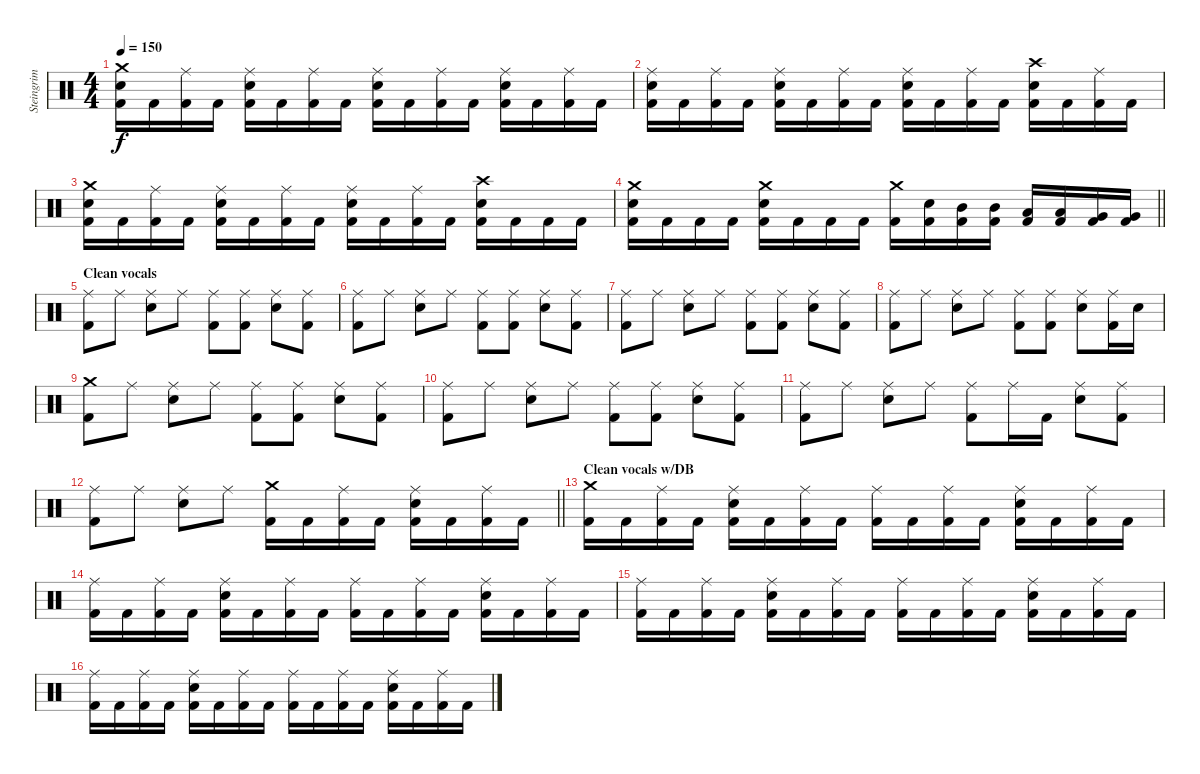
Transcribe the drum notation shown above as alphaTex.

\track ("Steingrim" "Steingrim") {instrument percussion}
\staff {score}
\articulation defaults
\ts (4 4)
\tempo 150
\clef neutral
\ks c
("Crash medium (hit)" "Snare (hit) 2" "Kick (hit) 2").16{dy f} "Kick (hit) 2".16 ("Ride (middle)" "Kick (hit) 2").16 "Kick (hit) 2".16 ("Ride (middle)" "Snare (hit) 2" "Kick (hit) 2").16 "Kick (hit) 2".16 ("Ride (middle)" "Kick (hit) 2").16 "Kick (hit) 2".16 ("Ride (middle)" "Snare (hit) 2" "Kick (hit) 2").16 "Kick (hit) 2".16 ("Ride (middle)" "Kick (hit) 2").16 "Kick (hit) 2".16 ("Ride (middle)" "Snare (hit) 2" "Kick (hit) 2").16 "Kick (hit) 2".16 ("Ride (middle)" "Kick (hit) 2").16 "Kick (hit) 2".16 |
("Ride (middle)" "Snare (hit) 2" "Kick (hit) 2").16 "Kick (hit) 2".16 ("Ride (middle)" "Kick (hit) 2").16 "Kick (hit) 2".16 ("Ride (middle)" "Snare (hit) 2" "Kick (hit) 2").16 "Kick (hit) 2".16 ("Ride (middle)" "Kick (hit) 2").16 "Kick (hit) 2".16 ("Ride (middle)" "Snare (hit) 2" "Kick (hit) 2").16 "Kick (hit) 2".16 ("Ride (middle)" "Kick (hit) 2").16 "Kick (hit) 2".16 ("Crash high (hit)" "Snare (hit) 2" "Kick (hit) 2").16 "Kick (hit) 2".16 ("Ride (middle)" "Kick (hit) 2").16 "Kick (hit) 2".16 |
("Crash medium (hit)" "Snare (hit) 2" "Kick (hit) 2").16 "Kick (hit) 2".16 ("Ride (middle)" "Kick (hit) 2").16 "Kick (hit) 2".16 ("Ride (middle)" "Snare (hit) 2" "Kick (hit) 2").16 "Kick (hit) 2".16 ("Ride (middle)" "Kick (hit) 2").16 "Kick (hit) 2".16 ("Ride (middle)" "Snare (hit) 2" "Kick (hit) 2").16 "Kick (hit) 2".16 ("Ride (middle)" "Kick (hit) 2").16 "Kick (hit) 2".16 ("Crash high (hit)" "Snare (hit) 2" "Kick (hit) 2").16 "Kick (hit) 2".16 "Kick (hit) 2".16 "Kick (hit) 2".16 |
\barLineRight lightlight
("Crash medium (hit)" "Snare (hit) 2" "Kick (hit) 2").16 "Kick (hit) 2".16 "Kick (hit) 2".16 "Kick (hit) 2".16 ("Crash medium (hit)" "Snare (hit) 2" "Kick (hit) 2").16 "Kick (hit) 2".16 "Kick (hit) 2".16 "Kick (hit) 2".16 ("Crash medium (hit)" "Kick (hit) 2").16 ("Snare (hit) 2" "Kick (hit) 2").16 ("Mid Tom (hit)" "Kick (hit) 2").16 ("Mid Tom (hit)" "Kick (hit) 2").16 ("Low Tom (hit)" "Kick (hit) 2").16 ("Low Tom (hit)" "Kick (hit) 2").16 ("Very Low Tom (hit)" "Kick (hit) 2").16 ("Very Low Tom (hit)" "Kick (hit) 2").16 |
\section ("" "Clean vocals")
("Ride (middle)" "Kick (hit) 2").8 "Ride (middle)".8 ("Ride (middle)" "Snare (hit) 2").8 "Ride (middle)".8 ("Ride (middle)" "Kick (hit) 2").8 ("Ride (middle)" "Kick (hit) 2").8 ("Ride (middle)" "Snare (hit) 2").8 ("Ride (middle)" "Kick (hit) 2").8 |
("Ride (middle)" "Kick (hit) 2").8 "Ride (middle)".8 ("Ride (middle)" "Snare (hit) 2").8 "Ride (middle)".8 ("Ride (middle)" "Kick (hit) 2").8 ("Ride (middle)" "Kick (hit) 2").8 ("Ride (middle)" "Snare (hit) 2").8 ("Ride (middle)" "Kick (hit) 2").8 |
("Ride (middle)" "Kick (hit) 2").8 "Ride (middle)".8 ("Ride (middle)" "Snare (hit) 2").8 "Ride (middle)".8 ("Ride (middle)" "Kick (hit) 2").8 ("Ride (middle)" "Kick (hit) 2").8 ("Ride (middle)" "Snare (hit) 2").8 ("Ride (middle)" "Kick (hit) 2").8 |
("Ride (middle)" "Kick (hit) 2").8 "Ride (middle)".8 ("Ride (middle)" "Snare (hit) 2").8 "Ride (middle)".8 ("Ride (middle)" "Kick (hit) 2").8 ("Ride (middle)" "Kick (hit) 2").8 ("Ride (middle)" "Snare (hit) 2").8 ("Ride (middle)" "Kick (hit) 2").16 "Snare (hit) 2".16 |
("Crash medium (hit)" "Kick (hit) 2").8 "Ride (middle)".8 ("Ride (middle)" "Snare (hit) 2").8 "Ride (middle)".8 ("Ride (middle)" "Kick (hit) 2").8 ("Ride (middle)" "Kick (hit) 2").8 ("Ride (middle)" "Snare (hit) 2").8 ("Ride (middle)" "Kick (hit) 2").8 |
("Ride (middle)" "Kick (hit) 2").8 "Ride (middle)".8 ("Ride (middle)" "Snare (hit) 2").8 "Ride (middle)".8 ("Ride (middle)" "Kick (hit) 2").8 ("Ride (middle)" "Kick (hit) 2").8 ("Ride (middle)" "Snare (hit) 2").8 ("Ride (middle)" "Kick (hit) 2").8 |
("Ride (middle)" "Kick (hit) 2").8 "Ride (middle)".8 ("Ride (middle)" "Snare (hit) 2").8 "Ride (middle)".8 ("Ride (middle)" "Kick (hit) 2").8 "Ride (middle)".16 "Kick (hit) 2".16 ("Ride (middle)" "Snare (hit) 2").8 ("Ride (middle)" "Kick (hit) 2").8 |
\barLineRight lightlight
("Ride (middle)" "Kick (hit) 2").8 "Ride (middle)".8 ("Ride (middle)" "Snare (hit) 2").8 "Ride (middle)".8 ("Crash medium (hit)" "Kick (hit) 2").16 "Kick (hit) 2".16 ("Ride (middle)" "Kick (hit) 2").16 "Kick (hit) 2".16 ("Ride (middle)" "Snare (hit) 2" "Kick (hit) 2").16 "Kick (hit) 2".16 ("Ride (middle)" "Kick (hit) 2").16 "Kick (hit) 2".16 |
\section ("" "Clean vocals w/DB")
("Crash medium (hit)" "Kick (hit) 2").16 "Kick (hit) 2".16 ("Ride (middle)" "Kick (hit) 2").16 "Kick (hit) 2".16 ("Ride (middle)" "Snare (hit) 2" "Kick (hit) 2").16 "Kick (hit) 2".16 ("Ride (middle)" "Kick (hit) 2").16 "Kick (hit) 2".16 ("Ride (middle)" "Kick (hit) 2").16 "Kick (hit) 2".16 ("Ride (middle)" "Kick (hit) 2").16 "Kick (hit) 2".16 ("Ride (middle)" "Snare (hit) 2" "Kick (hit) 2").16 "Kick (hit) 2".16 ("Ride (middle)" "Kick (hit) 2").16 "Kick (hit) 2".16 |
("Ride (middle)" "Kick (hit) 2").16 "Kick (hit) 2".16 ("Ride (middle)" "Kick (hit) 2").16 "Kick (hit) 2".16 ("Ride (middle)" "Snare (hit) 2" "Kick (hit) 2").16 "Kick (hit) 2".16 ("Ride (middle)" "Kick (hit) 2").16 "Kick (hit) 2".16 ("Ride (middle)" "Kick (hit) 2").16 "Kick (hit) 2".16 ("Ride (middle)" "Kick (hit) 2").16 "Kick (hit) 2".16 ("Ride (middle)" "Snare (hit) 2" "Kick (hit) 2").16 "Kick (hit) 2".16 ("Ride (middle)" "Kick (hit) 2").16 "Kick (hit) 2".16 |
("Ride (middle)" "Kick (hit) 2").16 "Kick (hit) 2".16 ("Ride (middle)" "Kick (hit) 2").16 "Kick (hit) 2".16 ("Ride (middle)" "Snare (hit) 2" "Kick (hit) 2").16 "Kick (hit) 2".16 ("Ride (middle)" "Kick (hit) 2").16 "Kick (hit) 2".16 ("Ride (middle)" "Kick (hit) 2").16 "Kick (hit) 2".16 ("Ride (middle)" "Kick (hit) 2").16 "Kick (hit) 2".16 ("Ride (middle)" "Snare (hit) 2" "Kick (hit) 2").16 "Kick (hit) 2".16 ("Ride (middle)" "Kick (hit) 2").16 "Kick (hit) 2".16 |
("Ride (middle)" "Kick (hit) 2").16 "Kick (hit) 2".16 ("Ride (middle)" "Kick (hit) 2").16 "Kick (hit) 2".16 ("Ride (middle)" "Snare (hit) 2" "Kick (hit) 2").16 "Kick (hit) 2".16 ("Ride (middle)" "Kick (hit) 2").16 "Kick (hit) 2".16 ("Ride (middle)" "Kick (hit) 2").16 "Kick (hit) 2".16 ("Ride (middle)" "Kick (hit) 2").16 "Kick (hit) 2".16 ("Ride (middle)" "Snare (hit) 2" "Kick (hit) 2").16 "Kick (hit) 2".16 ("Ride (middle)" "Kick (hit) 2").16 "Kick (hit) 2".16
